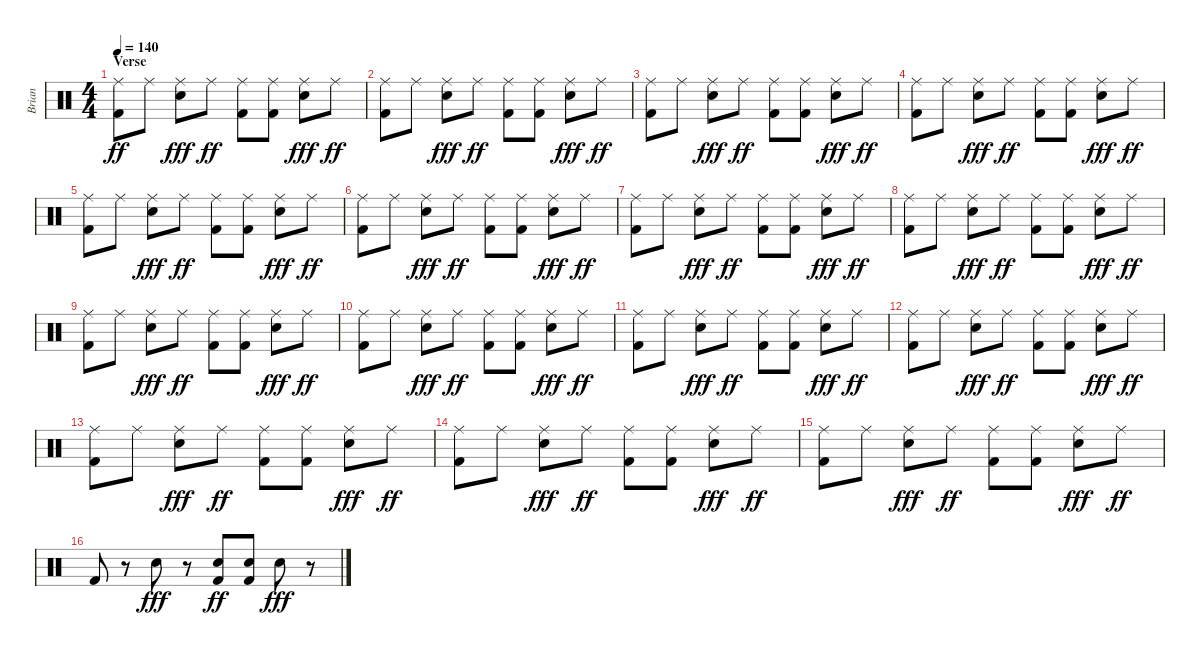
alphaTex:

\track ("Brian" "Brian") {instrument percussion}
\staff {score}
\articulation defaults
\ts (4 4)
\section ("" "Verse")
\tempo 140
\clef neutral
\ks c
("Ride (middle)" "Kick (hit) 2").8{dy ff} "Ride (middle)".8 ("Ride (middle)" "Snare (hit) 2").8{dy fff} "Ride (middle)".8{dy ff} ("Ride (middle)" "Kick (hit) 2").8 ("Ride (middle)" "Kick (hit) 2").8 ("Ride (middle)" "Snare (hit) 2").8{dy fff} "Ride (middle)".8{dy ff} |
("Ride (middle)" "Kick (hit) 2").8 "Ride (middle)".8 ("Ride (middle)" "Snare (hit) 2").8{dy fff} "Ride (middle)".8{dy ff} ("Ride (middle)" "Kick (hit) 2").8 ("Ride (middle)" "Kick (hit) 2").8 ("Ride (middle)" "Snare (hit) 2").8{dy fff} "Ride (middle)".8{dy ff} |
("Ride (middle)" "Kick (hit) 2").8 "Ride (middle)".8 ("Ride (middle)" "Snare (hit) 2").8{dy fff} "Ride (middle)".8{dy ff} ("Ride (middle)" "Kick (hit) 2").8 ("Ride (middle)" "Kick (hit) 2").8 ("Ride (middle)" "Snare (hit) 2").8{dy fff} "Ride (middle)".8{dy ff} |
("Ride (middle)" "Kick (hit) 2").8 "Ride (middle)".8 ("Ride (middle)" "Snare (hit) 2").8{dy fff} "Ride (middle)".8{dy ff} ("Ride (middle)" "Kick (hit) 2").8 ("Ride (middle)" "Kick (hit) 2").8 ("Ride (middle)" "Snare (hit) 2").8{dy fff} "Ride (middle)".8{dy ff} |
("Ride (middle)" "Kick (hit) 2").8 "Ride (middle)".8 ("Ride (middle)" "Snare (hit) 2").8{dy fff} "Ride (middle)".8{dy ff} ("Ride (middle)" "Kick (hit) 2").8 ("Ride (middle)" "Kick (hit) 2").8 ("Ride (middle)" "Snare (hit) 2").8{dy fff} "Ride (middle)".8{dy ff} |
("Ride (middle)" "Kick (hit) 2").8 "Ride (middle)".8 ("Ride (middle)" "Snare (hit) 2").8{dy fff} "Ride (middle)".8{dy ff} ("Ride (middle)" "Kick (hit) 2").8 ("Ride (middle)" "Kick (hit) 2").8 ("Ride (middle)" "Snare (hit) 2").8{dy fff} "Ride (middle)".8{dy ff} |
("Ride (middle)" "Kick (hit) 2").8 "Ride (middle)".8 ("Ride (middle)" "Snare (hit) 2").8{dy fff} "Ride (middle)".8{dy ff} ("Ride (middle)" "Kick (hit) 2").8 ("Ride (middle)" "Kick (hit) 2").8 ("Ride (middle)" "Snare (hit) 2").8{dy fff} "Ride (middle)".8{dy ff} |
("Ride (middle)" "Kick (hit) 2").8 "Ride (middle)".8 ("Ride (middle)" "Snare (hit) 2").8{dy fff} "Ride (middle)".8{dy ff} ("Ride (middle)" "Kick (hit) 2").8 ("Ride (middle)" "Kick (hit) 2").8 ("Ride (middle)" "Snare (hit) 2").8{dy fff} "Ride (middle)".8{dy ff} |
("Ride (middle)" "Kick (hit) 2").8 "Ride (middle)".8 ("Ride (middle)" "Snare (hit) 2").8{dy fff} "Ride (middle)".8{dy ff} ("Ride (middle)" "Kick (hit) 2").8 ("Ride (middle)" "Kick (hit) 2").8 ("Ride (middle)" "Snare (hit) 2").8{dy fff} "Ride (middle)".8{dy ff} |
("Ride (middle)" "Kick (hit) 2").8 "Ride (middle)".8 ("Ride (middle)" "Snare (hit) 2").8{dy fff} "Ride (middle)".8{dy ff} ("Ride (middle)" "Kick (hit) 2").8 ("Ride (middle)" "Kick (hit) 2").8 ("Ride (middle)" "Snare (hit) 2").8{dy fff} "Ride (middle)".8{dy ff} |
("Ride (middle)" "Kick (hit) 2").8 "Ride (middle)".8 ("Ride (middle)" "Snare (hit) 2").8{dy fff} "Ride (middle)".8{dy ff} ("Ride (middle)" "Kick (hit) 2").8 ("Ride (middle)" "Kick (hit) 2").8 ("Ride (middle)" "Snare (hit) 2").8{dy fff} "Ride (middle)".8{dy ff} |
("Ride (middle)" "Kick (hit) 2").8 "Ride (middle)".8 ("Ride (middle)" "Snare (hit) 2").8{dy fff} "Ride (middle)".8{dy ff} ("Ride (middle)" "Kick (hit) 2").8 ("Ride (middle)" "Kick (hit) 2").8 ("Ride (middle)" "Snare (hit) 2").8{dy fff} "Ride (middle)".8{dy ff} |
("Ride (middle)" "Kick (hit) 2").8 "Ride (middle)".8 ("Ride (middle)" "Snare (hit) 2").8{dy fff} "Ride (middle)".8{dy ff} ("Ride (middle)" "Kick (hit) 2").8 ("Ride (middle)" "Kick (hit) 2").8 ("Ride (middle)" "Snare (hit) 2").8{dy fff} "Ride (middle)".8{dy ff} |
("Ride (middle)" "Kick (hit) 2").8 "Ride (middle)".8 ("Ride (middle)" "Snare (hit) 2").8{dy fff} "Ride (middle)".8{dy ff} ("Ride (middle)" "Kick (hit) 2").8 ("Ride (middle)" "Kick (hit) 2").8 ("Ride (middle)" "Snare (hit) 2").8{dy fff} "Ride (middle)".8{dy ff} |
("Ride (middle)" "Kick (hit) 2").8 "Ride (middle)".8 ("Ride (middle)" "Snare (hit) 2").8{dy fff} "Ride (middle)".8{dy ff} ("Ride (middle)" "Kick (hit) 2").8 ("Ride (middle)" "Kick (hit) 2").8 ("Ride (middle)" "Snare (hit) 2").8{dy fff} "Ride (middle)".8{dy ff} |
"Kick (hit) 2".8 r.8 "Snare (hit) 2".8{dy fff} r.8 ("Snare (hit) 2" "Kick (hit) 2").8{dy ff} ("Snare (hit) 2" "Kick (hit) 2").8 "Snare (hit) 2".8{dy fff} r.8
